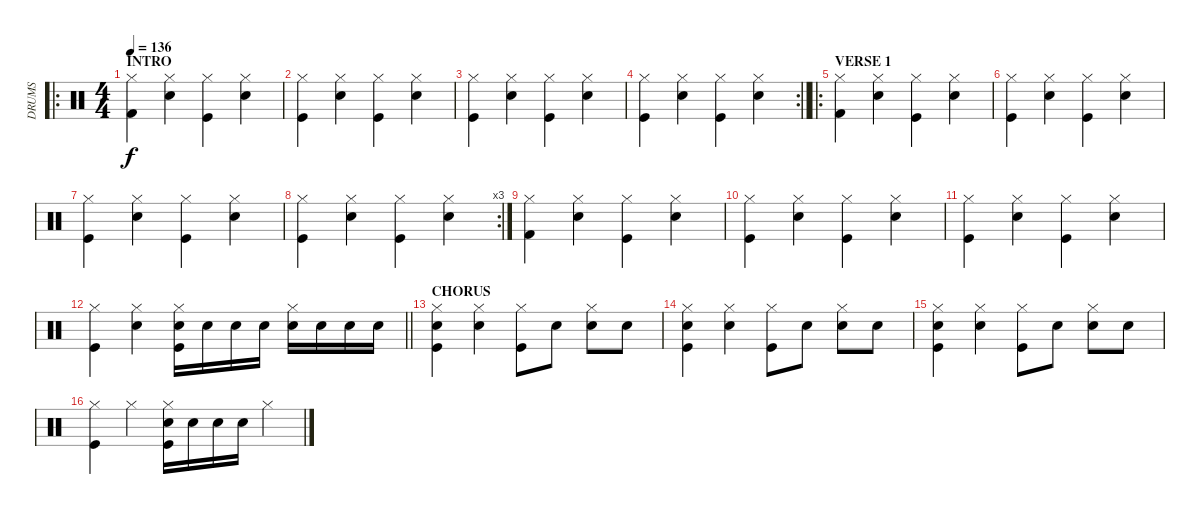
\track ("DRUMS" "DRUMS") {instrument percussion}
\staff {score}
\articulation defaults
\ro
\ts (4 4)
\section ("" "INTRO")
\tempo 136
\clef neutral
\ks c
("Hi-Hat (closed)" "Kick (hit) 2").4{dy f} ("Hi-Hat (closed)" "Snare (hit) 2").4 ("Hi-Hat (closed)" "Kick (hit)").4 ("Hi-Hat (closed)" "Snare (hit) 2").4 |
("Hi-Hat (closed)" "Kick (hit)").4 ("Hi-Hat (closed)" "Snare (hit) 2").4 ("Hi-Hat (closed)" "Kick (hit)").4 ("Hi-Hat (closed)" "Snare (hit) 2").4 |
("Hi-Hat (closed)" "Kick (hit)").4 ("Hi-Hat (closed)" "Snare (hit) 2").4 ("Hi-Hat (closed)" "Kick (hit)").4 ("Hi-Hat (closed)" "Snare (hit) 2").4 |
\rc 2
\barLineRight lightlight
("Hi-Hat (closed)" "Kick (hit)").4 ("Hi-Hat (closed)" "Snare (hit) 2").4 ("Hi-Hat (closed)" "Kick (hit)").4 ("Hi-Hat (closed)" "Snare (hit) 2").4 |
\ro
\section ("" "VERSE 1")
("Hi-Hat (closed)" "Kick (hit) 2").4 ("Hi-Hat (closed)" "Snare (hit) 2").4 ("Hi-Hat (closed)" "Kick (hit)").4 ("Hi-Hat (closed)" "Snare (hit) 2").4 |
("Hi-Hat (closed)" "Kick (hit)").4 ("Hi-Hat (closed)" "Snare (hit) 2").4 ("Hi-Hat (closed)" "Kick (hit)").4 ("Hi-Hat (closed)" "Snare (hit) 2").4 |
("Hi-Hat (closed)" "Kick (hit)").4 ("Hi-Hat (closed)" "Snare (hit) 2").4 ("Hi-Hat (closed)" "Kick (hit)").4 ("Hi-Hat (closed)" "Snare (hit) 2").4 |
\rc 3
("Hi-Hat (closed)" "Kick (hit)").4 ("Hi-Hat (closed)" "Snare (hit) 2").4 ("Hi-Hat (closed)" "Kick (hit)").4 ("Hi-Hat (closed)" "Snare (hit) 2").4 |
("Hi-Hat (closed)" "Kick (hit) 2").4 ("Hi-Hat (closed)" "Snare (hit) 2").4 ("Hi-Hat (closed)" "Kick (hit)").4 ("Hi-Hat (closed)" "Snare (hit) 2").4 |
("Hi-Hat (closed)" "Kick (hit)").4 ("Hi-Hat (closed)" "Snare (hit) 2").4 ("Hi-Hat (closed)" "Kick (hit)").4 ("Hi-Hat (closed)" "Snare (hit) 2").4 |
("Hi-Hat (closed)" "Kick (hit)").4 ("Hi-Hat (closed)" "Snare (hit) 2").4 ("Hi-Hat (closed)" "Kick (hit)").4 ("Hi-Hat (closed)" "Snare (hit) 2").4 |
\barLineRight lightlight
("Hi-Hat (closed)" "Kick (hit)").4 ("Hi-Hat (closed)" "Snare (hit) 2").4 ("Hi-Hat (closed)" "Kick (hit)" "Snare (hit) 2").16 "Snare (hit) 2".16 "Snare (hit) 2".16 "Snare (hit) 2".16 ("Hi-Hat (closed)" "Snare (hit) 2").16 "Snare (hit) 2".16 "Snare (hit) 2".16 "Snare (hit) 2".16 |
\section ("" "CHORUS")
("Hi-Hat (closed)" "Kick (hit)" "Snare (hit) 2").4 ("Hi-Hat (closed)" "Snare (hit) 2").4 ("Hi-Hat (closed)" "Kick (hit)").8 "Snare (hit) 2".8 ("Hi-Hat (closed)" "Snare (hit) 2").8 "Snare (hit) 2".8 |
("Hi-Hat (closed)" "Kick (hit)" "Snare (hit) 2").4 ("Hi-Hat (closed)" "Snare (hit) 2").4 ("Hi-Hat (closed)" "Kick (hit)").8 "Snare (hit) 2".8 ("Hi-Hat (closed)" "Snare (hit) 2").8 "Snare (hit) 2".8 |
("Hi-Hat (closed)" "Kick (hit)" "Snare (hit) 2").4 ("Hi-Hat (closed)" "Snare (hit) 2").4 ("Hi-Hat (closed)" "Kick (hit)").8 "Snare (hit) 2".8 ("Hi-Hat (closed)" "Snare (hit) 2").8 "Snare (hit) 2".8 |
("Hi-Hat (closed)" "Kick (hit)").4 "Hi-Hat (closed)".4 ("Hi-Hat (closed)" "Kick (hit)" "Snare (hit) 2").16 "Snare (hit) 2".16 "Snare (hit) 2".16 "Snare (hit) 2".16 "Hi-Hat (closed)".4
